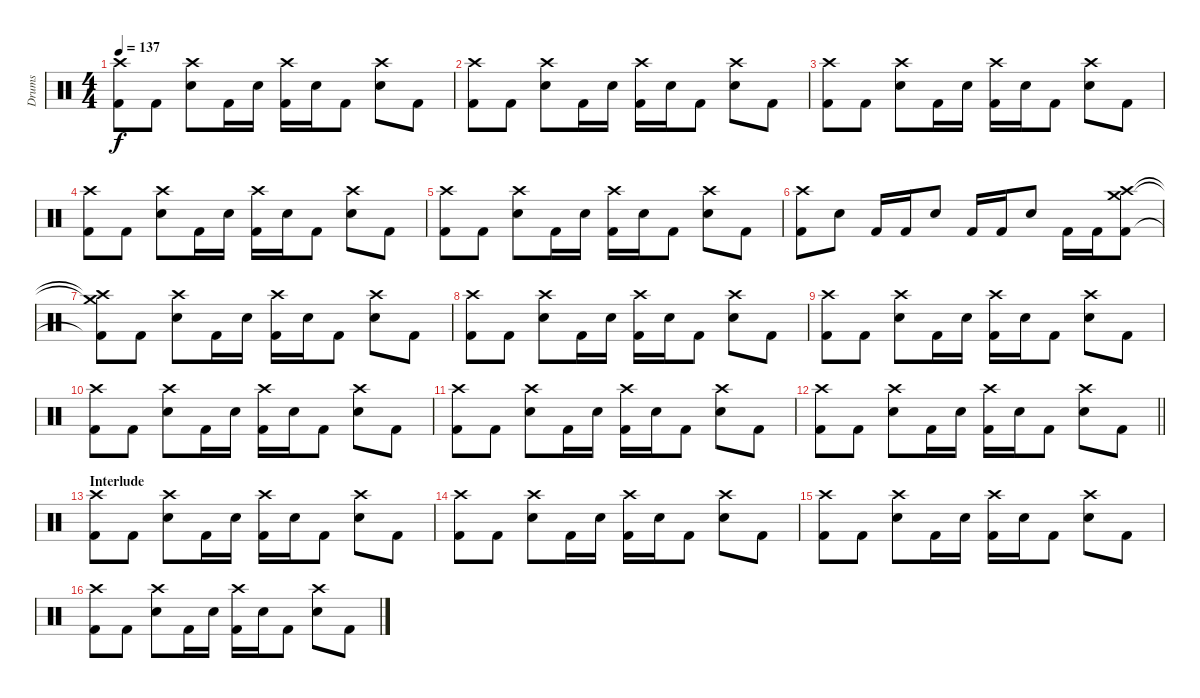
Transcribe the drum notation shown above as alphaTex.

\track ("Drums" "Drums") {instrument percussion}
\staff {score}
\articulation defaults
\ts (4 4)
\tempo 137
\clef neutral
\ks c
("Crash high (hit)" "Kick (hit) 2").8{dy f} "Kick (hit) 2".8 ("Crash high (hit)" "Electric Snare (hit)").8 "Kick (hit) 2".16 "Electric Snare (hit)".16 ("Crash high (hit)" "Kick (hit) 2").16 "Electric Snare (hit)".16 "Kick (hit) 2".8 ("Crash high (hit)" "Electric Snare (hit)").8 "Kick (hit) 2".8 |
("Crash high (hit)" "Kick (hit) 2").8 "Kick (hit) 2".8 ("Crash high (hit)" "Electric Snare (hit)").8 "Kick (hit) 2".16 "Electric Snare (hit)".16 ("Crash high (hit)" "Kick (hit) 2").16 "Electric Snare (hit)".16 "Kick (hit) 2".8 ("Crash high (hit)" "Electric Snare (hit)").8 "Kick (hit) 2".8 |
("Crash high (hit)" "Kick (hit) 2").8 "Kick (hit) 2".8 ("Crash high (hit)" "Electric Snare (hit)").8 "Kick (hit) 2".16 "Electric Snare (hit)".16 ("Crash high (hit)" "Kick (hit) 2").16 "Electric Snare (hit)".16 "Kick (hit) 2".8 ("Crash high (hit)" "Electric Snare (hit)").8 "Kick (hit) 2".8 |
("Crash high (hit)" "Kick (hit) 2").8 "Kick (hit) 2".8 ("Crash high (hit)" "Electric Snare (hit)").8 "Kick (hit) 2".16 "Electric Snare (hit)".16 ("Crash high (hit)" "Kick (hit) 2").16 "Electric Snare (hit)".16 "Kick (hit) 2".8 ("Crash high (hit)" "Electric Snare (hit)").8 "Kick (hit) 2".8 |
("Crash high (hit)" "Kick (hit) 2").8 "Kick (hit) 2".8 ("Crash high (hit)" "Electric Snare (hit)").8 "Kick (hit) 2".16 "Electric Snare (hit)".16 ("Crash high (hit)" "Kick (hit) 2").16 "Electric Snare (hit)".16 "Kick (hit) 2".8 ("Crash high (hit)" "Electric Snare (hit)").8 "Kick (hit) 2".8 |
("Crash high (hit)" "Kick (hit) 2").8 "Electric Snare (hit)".8 "Kick (hit) 2".16 "Kick (hit) 2".16 "Electric Snare (hit)".8 "Kick (hit) 2".16 "Kick (hit) 2".16 "Electric Snare (hit)".8 "Kick (hit) 2".16 "Kick (hit) 2".16 ("Crash medium (hit)" "Crash high (hit)" "Kick (hit) 2").8 |
("Crash medium (hit)"{t} "Crash high (hit)"{t} "Kick (hit) 2"{t}).8 "Kick (hit) 2".8 ("Crash high (hit)" "Electric Snare (hit)").8 "Kick (hit) 2".16 "Electric Snare (hit)".16 ("Crash high (hit)" "Kick (hit) 2").16 "Electric Snare (hit)".16 "Kick (hit) 2".8 ("Crash high (hit)" "Electric Snare (hit)").8 "Kick (hit) 2".8 |
("Crash high (hit)" "Kick (hit) 2").8 "Kick (hit) 2".8 ("Crash high (hit)" "Electric Snare (hit)").8 "Kick (hit) 2".16 "Electric Snare (hit)".16 ("Crash high (hit)" "Kick (hit) 2").16 "Electric Snare (hit)".16 "Kick (hit) 2".8 ("Crash high (hit)" "Electric Snare (hit)").8 "Kick (hit) 2".8 |
("Crash high (hit)" "Kick (hit) 2").8 "Kick (hit) 2".8 ("Crash high (hit)" "Electric Snare (hit)").8 "Kick (hit) 2".16 "Electric Snare (hit)".16 ("Crash high (hit)" "Kick (hit) 2").16 "Electric Snare (hit)".16 "Kick (hit) 2".8 ("Crash high (hit)" "Electric Snare (hit)").8 "Kick (hit) 2".8 |
("Crash high (hit)" "Kick (hit) 2").8 "Kick (hit) 2".8 ("Crash high (hit)" "Electric Snare (hit)").8 "Kick (hit) 2".16 "Electric Snare (hit)".16 ("Crash high (hit)" "Kick (hit) 2").16 "Electric Snare (hit)".16 "Kick (hit) 2".8 ("Crash high (hit)" "Electric Snare (hit)").8 "Kick (hit) 2".8 |
("Crash high (hit)" "Kick (hit) 2").8 "Kick (hit) 2".8 ("Crash high (hit)" "Electric Snare (hit)").8 "Kick (hit) 2".16 "Electric Snare (hit)".16 ("Crash high (hit)" "Kick (hit) 2").16 "Electric Snare (hit)".16 "Kick (hit) 2".8 ("Crash high (hit)" "Electric Snare (hit)").8 "Kick (hit) 2".8 |
\barLineRight lightlight
("Crash high (hit)" "Kick (hit) 2").8 "Kick (hit) 2".8 ("Crash high (hit)" "Electric Snare (hit)").8 "Kick (hit) 2".16 "Electric Snare (hit)".16 ("Crash high (hit)" "Kick (hit) 2").16 "Electric Snare (hit)".16 "Kick (hit) 2".8 ("Crash high (hit)" "Electric Snare (hit)").8 "Kick (hit) 2".8 |
\section ("" "Interlude")
("Crash high (hit)" "Kick (hit) 2").8 "Kick (hit) 2".8 ("Crash high (hit)" "Electric Snare (hit)").8 "Kick (hit) 2".16 "Electric Snare (hit)".16 ("Crash high (hit)" "Kick (hit) 2").16 "Electric Snare (hit)".16 "Kick (hit) 2".8 ("Crash high (hit)" "Electric Snare (hit)").8 "Kick (hit) 2".8 |
("Crash high (hit)" "Kick (hit) 2").8 "Kick (hit) 2".8 ("Crash high (hit)" "Electric Snare (hit)").8 "Kick (hit) 2".16 "Electric Snare (hit)".16 ("Crash high (hit)" "Kick (hit) 2").16 "Electric Snare (hit)".16 "Kick (hit) 2".8 ("Crash high (hit)" "Electric Snare (hit)").8 "Kick (hit) 2".8 |
("Crash high (hit)" "Kick (hit) 2").8 "Kick (hit) 2".8 ("Crash high (hit)" "Electric Snare (hit)").8 "Kick (hit) 2".16 "Electric Snare (hit)".16 ("Crash high (hit)" "Kick (hit) 2").16 "Electric Snare (hit)".16 "Kick (hit) 2".8 ("Crash high (hit)" "Electric Snare (hit)").8 "Kick (hit) 2".8 |
("Crash high (hit)" "Kick (hit) 2").8 "Kick (hit) 2".8 ("Crash high (hit)" "Electric Snare (hit)").8 "Kick (hit) 2".16 "Electric Snare (hit)".16 ("Crash high (hit)" "Kick (hit) 2").16 "Electric Snare (hit)".16 "Kick (hit) 2".8 ("Crash high (hit)" "Electric Snare (hit)").8 "Kick (hit) 2".8
